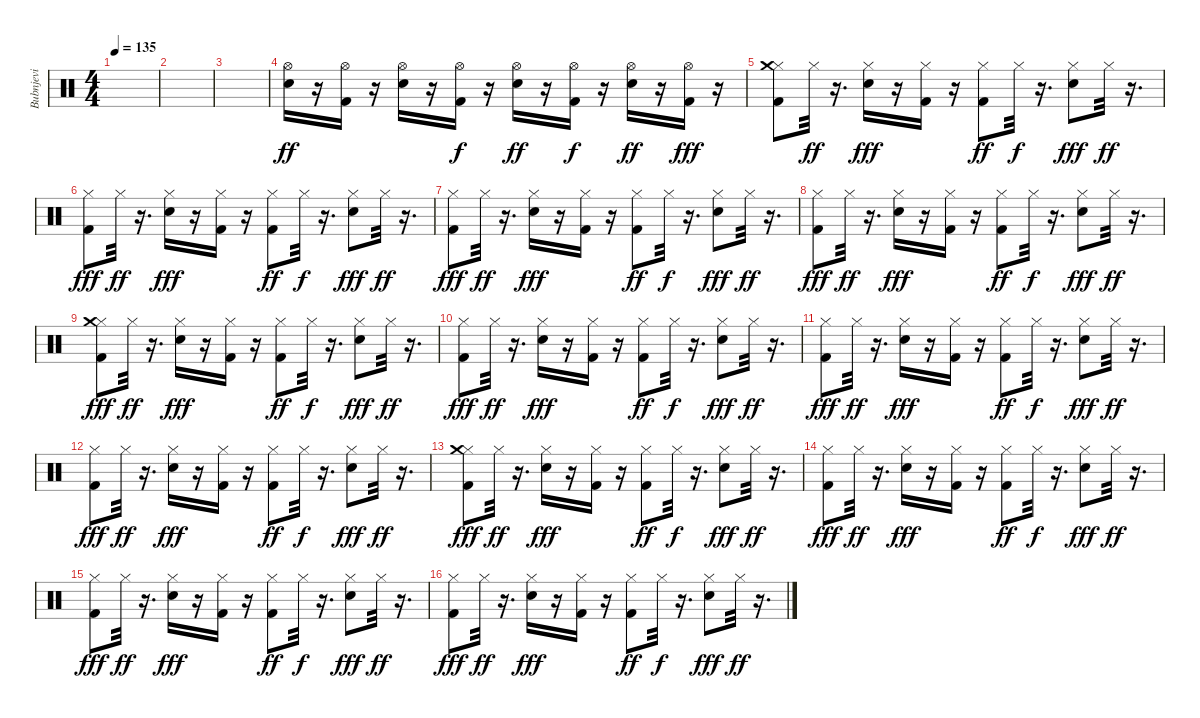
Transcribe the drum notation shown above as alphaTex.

\track ("Bubnjevi" "Bubnjevi") {instrument percussion}
\staff {score}
\articulation defaults
\ts (4 4)
\tempo 135
\clef neutral
\ks c
|
|
|
("Hi-Hat (open)" "Electric Snare (hit)").16{dy ff} r.16 ("Hi-Hat (open)" "Kick (hit) 2").16 r.16 ("Hi-Hat (open)" "Electric Snare (hit)").16 r.16 ("Hi-Hat (open)" "Kick (hit) 2").16{dy f} r.16 ("Hi-Hat (open)" "Electric Snare (hit)").16{dy ff} r.16 ("Hi-Hat (open)" "Kick (hit) 2").16{dy f} r.16 ("Hi-Hat (open)" "Electric Snare (hit)").16{dy ff} r.16 ("Hi-Hat (open)" "Kick (hit) 2").16{dy fff} r.16 |
("Kick (hit) 2" "Hi-Hat (closed)" "Crash medium (hit)").8 "Hi-Hat (closed)".32{dy ff} r.16{d} ("Electric Snare (hit)" "Hi-Hat (closed)").16{dy fff} r.16 ("Kick (hit) 2" "Hi-Hat (closed)").16 r.16 ("Kick (hit) 2" "Hi-Hat (closed)").8{dy ff} "Hi-Hat (closed)".32{dy f} r.16{d} ("Electric Snare (hit)" "Hi-Hat (closed)").8{dy fff} "Hi-Hat (closed)".32{dy ff} r.16{d} |
("Kick (hit) 2" "Hi-Hat (closed)").8{dy fff} "Hi-Hat (closed)".32{dy ff} r.16{d} ("Electric Snare (hit)" "Hi-Hat (closed)").16{dy fff} r.16 ("Kick (hit) 2" "Hi-Hat (closed)").16 r.16 ("Kick (hit) 2" "Hi-Hat (closed)").8{dy ff} "Hi-Hat (closed)".32{dy f} r.16{d} ("Electric Snare (hit)" "Hi-Hat (closed)").8{dy fff} "Hi-Hat (closed)".32{dy ff} r.16{d} |
("Kick (hit) 2" "Hi-Hat (closed)").8{dy fff} "Hi-Hat (closed)".32{dy ff} r.16{d} ("Electric Snare (hit)" "Hi-Hat (closed)").16{dy fff} r.16 ("Kick (hit) 2" "Hi-Hat (closed)").16 r.16 ("Kick (hit) 2" "Hi-Hat (closed)").8{dy ff} "Hi-Hat (closed)".32{dy f} r.16{d} ("Electric Snare (hit)" "Hi-Hat (closed)").8{dy fff} "Hi-Hat (closed)".32{dy ff} r.16{d} |
("Kick (hit) 2" "Hi-Hat (closed)").8{dy fff} "Hi-Hat (closed)".32{dy ff} r.16{d} ("Electric Snare (hit)" "Hi-Hat (closed)").16{dy fff} r.16 ("Kick (hit) 2" "Hi-Hat (closed)").16 r.16 ("Kick (hit) 2" "Hi-Hat (closed)").8{dy ff} "Hi-Hat (closed)".32{dy f} r.16{d} ("Electric Snare (hit)" "Hi-Hat (closed)").8{dy fff} "Hi-Hat (closed)".32{dy ff} r.16{d} |
("Kick (hit) 2" "Hi-Hat (closed)" "Crash medium (hit)").8{dy fff} "Hi-Hat (closed)".32{dy ff} r.16{d} ("Electric Snare (hit)" "Hi-Hat (closed)").16{dy fff} r.16 ("Kick (hit) 2" "Hi-Hat (closed)").16 r.16 ("Kick (hit) 2" "Hi-Hat (closed)").8{dy ff} "Hi-Hat (closed)".32{dy f} r.16{d} ("Electric Snare (hit)" "Hi-Hat (closed)").8{dy fff} "Hi-Hat (closed)".32{dy ff} r.16{d} |
("Kick (hit) 2" "Hi-Hat (closed)").8{dy fff} "Hi-Hat (closed)".32{dy ff} r.16{d} ("Electric Snare (hit)" "Hi-Hat (closed)").16{dy fff} r.16 ("Kick (hit) 2" "Hi-Hat (closed)").16 r.16 ("Kick (hit) 2" "Hi-Hat (closed)").8{dy ff} "Hi-Hat (closed)".32{dy f} r.16{d} ("Electric Snare (hit)" "Hi-Hat (closed)").8{dy fff} "Hi-Hat (closed)".32{dy ff} r.16{d} |
("Kick (hit) 2" "Hi-Hat (closed)").8{dy fff} "Hi-Hat (closed)".32{dy ff} r.16{d} ("Electric Snare (hit)" "Hi-Hat (closed)").16{dy fff} r.16 ("Kick (hit) 2" "Hi-Hat (closed)").16 r.16 ("Kick (hit) 2" "Hi-Hat (closed)").8{dy ff} "Hi-Hat (closed)".32{dy f} r.16{d} ("Electric Snare (hit)" "Hi-Hat (closed)").8{dy fff} "Hi-Hat (closed)".32{dy ff} r.16{d} |
("Kick (hit) 2" "Hi-Hat (closed)").8{dy fff} "Hi-Hat (closed)".32{dy ff} r.16{d} ("Electric Snare (hit)" "Hi-Hat (closed)").16{dy fff} r.16 ("Kick (hit) 2" "Hi-Hat (closed)").16 r.16 ("Kick (hit) 2" "Hi-Hat (closed)").8{dy ff} "Hi-Hat (closed)".32{dy f} r.16{d} ("Electric Snare (hit)" "Hi-Hat (closed)").8{dy fff} "Hi-Hat (closed)".32{dy ff} r.16{d} |
("Kick (hit) 2" "Hi-Hat (closed)" "Crash medium (hit)").8{dy fff} "Hi-Hat (closed)".32{dy ff} r.16{d} ("Electric Snare (hit)" "Hi-Hat (closed)").16{dy fff} r.16 ("Kick (hit) 2" "Hi-Hat (closed)").16 r.16 ("Kick (hit) 2" "Hi-Hat (closed)").8{dy ff} "Hi-Hat (closed)".32{dy f} r.16{d} ("Electric Snare (hit)" "Hi-Hat (closed)").8{dy fff} "Hi-Hat (closed)".32{dy ff} r.16{d} |
("Kick (hit) 2" "Hi-Hat (closed)").8{dy fff} "Hi-Hat (closed)".32{dy ff} r.16{d} ("Electric Snare (hit)" "Hi-Hat (closed)").16{dy fff} r.16 ("Kick (hit) 2" "Hi-Hat (closed)").16 r.16 ("Kick (hit) 2" "Hi-Hat (closed)").8{dy ff} "Hi-Hat (closed)".32{dy f} r.16{d} ("Electric Snare (hit)" "Hi-Hat (closed)").8{dy fff} "Hi-Hat (closed)".32{dy ff} r.16{d} |
("Kick (hit) 2" "Hi-Hat (closed)").8{dy fff} "Hi-Hat (closed)".32{dy ff} r.16{d} ("Electric Snare (hit)" "Hi-Hat (closed)").16{dy fff} r.16 ("Kick (hit) 2" "Hi-Hat (closed)").16 r.16 ("Kick (hit) 2" "Hi-Hat (closed)").8{dy ff} "Hi-Hat (closed)".32{dy f} r.16{d} ("Electric Snare (hit)" "Hi-Hat (closed)").8{dy fff} "Hi-Hat (closed)".32{dy ff} r.16{d} |
("Kick (hit) 2" "Hi-Hat (closed)").8{dy fff} "Hi-Hat (closed)".32{dy ff} r.16{d} ("Electric Snare (hit)" "Hi-Hat (closed)").16{dy fff} r.16 ("Kick (hit) 2" "Hi-Hat (closed)").16 r.16 ("Kick (hit) 2" "Hi-Hat (closed)").8{dy ff} "Hi-Hat (closed)".32{dy f} r.16{d} ("Electric Snare (hit)" "Hi-Hat (closed)").8{dy fff} "Hi-Hat (closed)".32{dy ff} r.16{d}
